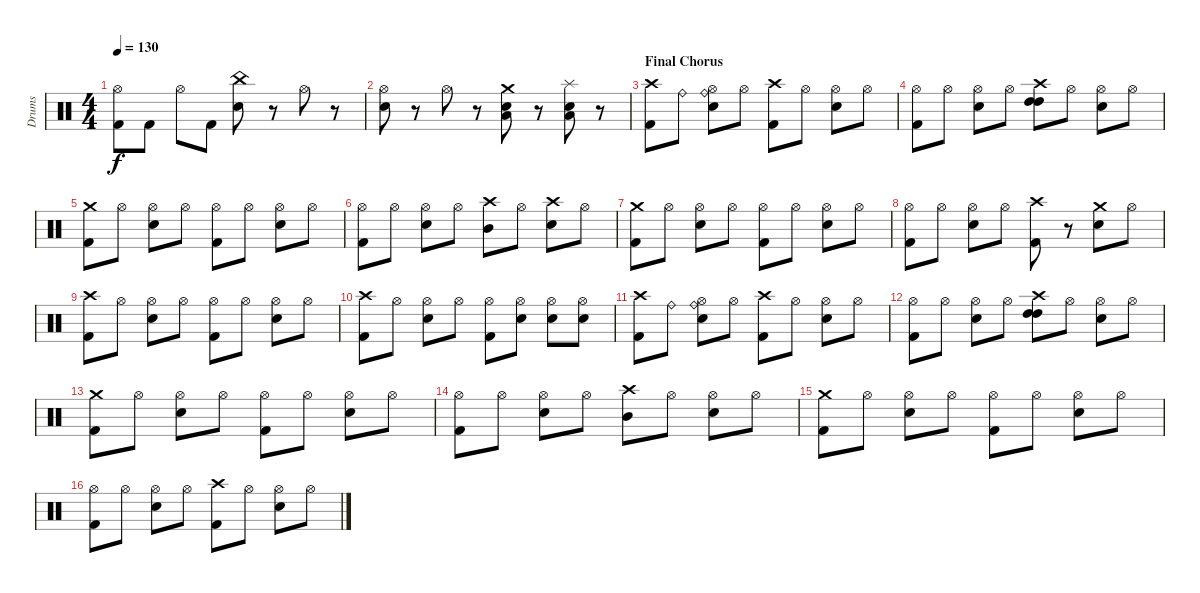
\track ("Drums" "Drums") {instrument percussion}
\staff {score}
\articulation defaults
\ts (4 4)
\tempo 130
\clef neutral
\ks c
("Hi-Hat (open)" "Kick (hit) 2").8{dy f} "Kick (hit) 2".8 "Hi-Hat (open)".8 "Kick (hit) 2".8 ("China (hit)" "Electric Snare (hit)").8 r.8 "Hi-Hat (open)".8 r.8 |
("Hi-Hat (open)" "Electric Snare (hit)").8 r.8 "Hi-Hat (open)".8 r.8 ("Crash medium (hit)" "Snare (hit) 2" "Low Tom (hit)").8 r.8 ("Splash (hit)" "Snare (hit) 2" "Low Tom (hit)").8 r.8 |
\section ("" "Final Chorus")
("Crash high (hit)" "Kick (hit) 2").8 "Ride (bell)".8 ("Hi-Hat (open)" "Ride (bell)" "Electric Snare (hit)").8 "Hi-Hat (open)".8 ("Crash high (hit)" "Kick (hit) 2").8 "Hi-Hat (open)".8 ("Hi-Hat (open)" "Electric Snare (hit)").8 "Hi-Hat (open)".8 |
("Hi-Hat (open)" "Kick (hit) 2").8 "Hi-Hat (open)".8 ("Hi-Hat (open)" "Electric Snare (hit)").8 "Hi-Hat (open)".8 ("Crash high (hit)" "High Tom (hit)" "High Tom (hit)").8 "Hi-Hat (open)".8 ("Hi-Hat (open)" "Electric Snare (hit)").8 "Hi-Hat (open)".8 |
("Crash medium (hit)" "Kick (hit) 2").8 "Hi-Hat (open)".8 ("Hi-Hat (open)" "Electric Snare (hit)").8 "Hi-Hat (open)".8 ("Hi-Hat (open)" "Kick (hit) 2").8 "Hi-Hat (open)".8 ("Hi-Hat (open)" "Electric Snare (hit)").8 "Hi-Hat (open)".8 |
("Hi-Hat (open)" "Kick (hit) 2").8 "Hi-Hat (open)".8 ("Hi-Hat (open)" "Electric Snare (hit)").8 "Hi-Hat (open)".8 ("Crash high (hit)" "Mid Tom (hit)").8 "Hi-Hat (open)".8 ("Crash high (hit)" "Electric Snare (hit)").8 "Hi-Hat (open)".8 |
("Crash medium (hit)" "Kick (hit) 2").8 "Hi-Hat (open)".8 ("Hi-Hat (open)" "Electric Snare (hit)").8 "Hi-Hat (open)".8 ("Hi-Hat (open)" "Kick (hit) 2").8 "Hi-Hat (open)".8 ("Hi-Hat (open)" "Electric Snare (hit)").8 "Hi-Hat (open)".8 |
("Hi-Hat (open)" "Kick (hit) 2").8 "Hi-Hat (open)".8 ("Hi-Hat (open)" "Electric Snare (hit)").8 "Hi-Hat (open)".8 ("Crash high (hit)" "Kick (hit) 2").8 r.8 ("Crash medium (hit)" "Electric Snare (hit)").8 "Hi-Hat (open)".8 |
("Crash high (hit)" "Kick (hit) 2").8 "Hi-Hat (open)".8 ("Hi-Hat (open)" "Electric Snare (hit)").8 "Hi-Hat (open)".8 ("Hi-Hat (open)" "Kick (hit) 2").8 "Hi-Hat (open)".8 ("Hi-Hat (open)" "Electric Snare (hit)").8 "Hi-Hat (open)".8 |
("Crash high (hit)" "Kick (hit) 2").8 "Hi-Hat (open)".8 ("Hi-Hat (open)" "Electric Snare (hit)").8 "Hi-Hat (open)".8 ("Hi-Hat (open)" "Kick (hit) 2").8 ("Hi-Hat (open)" "Electric Snare (hit)").8 ("Hi-Hat (open)" "Electric Snare (hit)").8 ("Hi-Hat (open)" "Electric Snare (hit)").8 |
("Crash high (hit)" "Kick (hit) 2").8 "Ride (bell)".8 ("Hi-Hat (open)" "Ride (bell)" "Electric Snare (hit)").8 "Hi-Hat (open)".8 ("Crash high (hit)" "Kick (hit) 2").8 "Hi-Hat (open)".8 ("Hi-Hat (open)" "Electric Snare (hit)").8 "Hi-Hat (open)".8 |
("Hi-Hat (open)" "Kick (hit) 2").8 "Hi-Hat (open)".8 ("Hi-Hat (open)" "Electric Snare (hit)").8 "Hi-Hat (open)".8 ("Crash high (hit)" "High Tom (hit)" "High Tom (hit)").8 "Hi-Hat (open)".8 ("Hi-Hat (open)" "Electric Snare (hit)").8 "Hi-Hat (open)".8 |
("Crash medium (hit)" "Kick (hit) 2").8 "Hi-Hat (open)".8 ("Hi-Hat (open)" "Electric Snare (hit)").8 "Hi-Hat (open)".8 ("Hi-Hat (open)" "Kick (hit) 2").8 "Hi-Hat (open)".8 ("Hi-Hat (open)" "Electric Snare (hit)").8 "Hi-Hat (open)".8 |
("Hi-Hat (open)" "Kick (hit) 2").8 "Hi-Hat (open)".8 ("Hi-Hat (open)" "Electric Snare (hit)").8 "Hi-Hat (open)".8 ("Crash high (hit)" "Mid Tom (hit)").8 "Hi-Hat (open)".8 ("Hi-Hat (open)" "Electric Snare (hit)").8 "Hi-Hat (open)".8 |
("Crash medium (hit)" "Kick (hit) 2").8 "Hi-Hat (open)".8 ("Hi-Hat (open)" "Electric Snare (hit)").8 "Hi-Hat (open)".8 ("Hi-Hat (open)" "Kick (hit) 2").8 "Hi-Hat (open)".8 ("Hi-Hat (open)" "Electric Snare (hit)").8 "Hi-Hat (open)".8 |
("Hi-Hat (open)" "Kick (hit) 2").8 "Hi-Hat (open)".8 ("Hi-Hat (open)" "Electric Snare (hit)").8 "Hi-Hat (open)".8 ("Crash high (hit)" "Kick (hit) 2").8 "Hi-Hat (open)".8 ("Hi-Hat (open)" "Electric Snare (hit)").8 "Hi-Hat (open)".8
